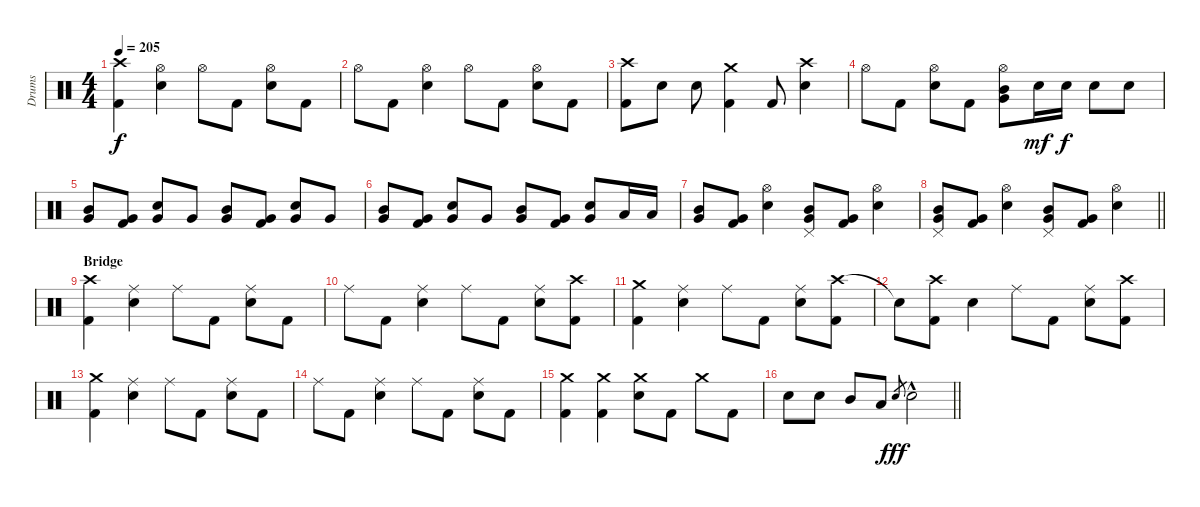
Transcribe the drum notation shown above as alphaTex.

\track ("Drums" "Drums") {instrument percussion}
\staff {score}
\articulation defaults
\ts (4 4)
\tempo 205
\clef neutral
\ks c
("Crash high (hit)" "Kick (hit) 2").4{dy f} ("Hi-Hat (open)" "Electric Snare (hit)").4 "Hi-Hat (open)".8 "Kick (hit) 2".8 ("Hi-Hat (open)" "Electric Snare (hit)").8 "Kick (hit) 2".8 |
"Hi-Hat (open)".8 "Kick (hit) 2".8 ("Hi-Hat (open)" "Electric Snare (hit)").4 "Hi-Hat (open)".8 "Kick (hit) 2".8 ("Hi-Hat (open)" "Electric Snare (hit)").8 "Kick (hit) 2".8 |
("Crash high (hit)" "Kick (hit) 2").8 "Electric Snare (hit)".8 "Electric Snare (hit)".8 ("Crash medium (hit)" "Kick (hit) 2").4 "Kick (hit) 2".8 ("Crash high (hit)" "Electric Snare (hit)").4 |
"Hi-Hat (open)".8 "Kick (hit) 2".8 ("Hi-Hat (open)" "Electric Snare (hit)").8 "Kick (hit) 2".8 ("Hi-Hat (open)" "Mid Tom (hit)" "Very Low Tom (hit)").8 "Electric Snare (hit)".16{dy mf} "Electric Snare (hit)".16{dy f} "Electric Snare (hit)".8 "Electric Snare (hit)".8 |
("Mid Tom (hit)" "Very Low Tom (hit)").8 ("Very Low Tom (hit)" "Kick (hit) 2").8 ("Electric Snare (hit)" "Very Low Tom (hit)").8 "Very Low Tom (hit)".8 ("Mid Tom (hit)" "Very Low Tom (hit)").8 ("Very Low Tom (hit)" "Kick (hit) 2").8 ("Electric Snare (hit)" "Very Low Tom (hit)").8 "Very Low Tom (hit)".8 |
("Mid Tom (hit)" "Very Low Tom (hit)").8 ("Very Low Tom (hit)" "Kick (hit) 2").8 ("Electric Snare (hit)" "Very Low Tom (hit)").8 "Very Low Tom (hit)".8 ("Mid Tom (hit)" "Very Low Tom (hit)").8 ("Very Low Tom (hit)" "Kick (hit) 2").8 ("Electric Snare (hit)" "Very Low Tom (hit)").8 "Low Tom (hit)".16 "Low Tom (hit)".16 |
("Mid Tom (hit)" "Very Low Tom (hit)").8 ("Very Low Tom (hit)" "Kick (hit) 2").8 ("Hi-Hat (open)" "Electric Snare (hit)").4 ("Pedal Hi-Hat (hit)" "Mid Tom (hit)" "Very Low Tom (hit)").8 ("Very Low Tom (hit)" "Kick (hit) 2").8 ("Hi-Hat (open)" "Electric Snare (hit)").4 |
\barLineRight lightlight
("Pedal Hi-Hat (hit)" "Mid Tom (hit)" "Very Low Tom (hit)").8 ("Very Low Tom (hit)" "Kick (hit) 2").8 ("Hi-Hat (open)" "Electric Snare (hit)").4 ("Pedal Hi-Hat (hit)" "Mid Tom (hit)" "Very Low Tom (hit)").8 ("Very Low Tom (hit)" "Kick (hit) 2").8 ("Hi-Hat (open)" "Electric Snare (hit)").4 |
\section ("" "Bridge")
("Crash high (hit)" "Kick (hit) 2").4 ("Ride (middle)" "Electric Snare (hit)").4 "Ride (middle)".8 "Kick (hit) 2".8 ("Ride (middle)" "Electric Snare (hit)").8 "Kick (hit) 2".8 |
"Ride (middle)".8 "Kick (hit) 2".8 ("Ride (middle)" "Electric Snare (hit)").4 "Ride (middle)".8 "Kick (hit) 2".8 ("Ride (middle)" "Electric Snare (hit)").8 ("Crash high (hit)" "Kick (hit) 2").8 |
("Crash medium (hit)" "Kick (hit) 2").4 ("Ride (middle)" "Electric Snare (hit)").4 "Ride (middle)".8 "Kick (hit) 2".8 ("Ride (middle)" "Electric Snare (hit)").8 ("Crash high (hit)" "Kick (hit) 2").8 |
"Snare (hit)"{t}.8 ("Crash high (hit)" "Kick (hit) 2").8 "Electric Snare (hit)".4 "Ride (middle)".8 "Kick (hit) 2".8 ("Ride (middle)" "Electric Snare (hit)").8 ("Crash high (hit)" "Kick (hit) 2").8 |
("Crash medium (hit)" "Kick (hit) 2").4 ("Ride (middle)" "Electric Snare (hit)").4 "Ride (middle)".8 "Kick (hit) 2".8 ("Ride (middle)" "Electric Snare (hit)").8 "Kick (hit) 2".8 |
"Ride (middle)".8 "Kick (hit) 2".8 ("Ride (middle)" "Electric Snare (hit)").4 "Ride (middle)".8 "Kick (hit) 2".8 ("Ride (middle)" "Electric Snare (hit)").8 "Kick (hit) 2".8 |
("Crash medium (hit)" "Kick (hit) 2").4 ("Crash medium (hit)" "Kick (hit) 2").4 ("Crash medium (hit)" "Electric Snare (hit)").8 "Kick (hit) 2".8 "Crash medium (hit)".8 "Kick (hit) 2".8 |
\barLineRight lightlight "Electric Snare (hit)".8 "Electric Snare (hit)".8 "Mid Tom (hit)".8 "Low Tom (hit)".8 "Electric Snare (hit)".8{gr dy fff} "Electric Snare (hit)"{hac}.2
